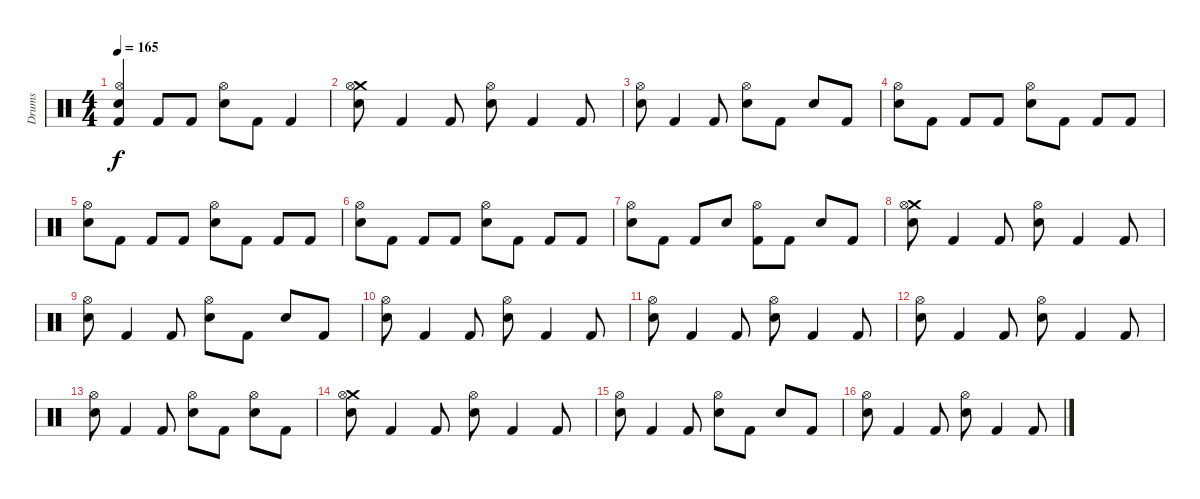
\track ("Drums" "Drums") {instrument percussion}
\staff {score}
\articulation defaults
\ts (4 4)
\tempo 165
\clef neutral
\ks c
("Electric Snare (hit)" "Hi-Hat (open)" "Kick (hit) 2").4{dy f} "Kick (hit) 2".8 "Kick (hit) 2".8 ("Electric Snare (hit)" "Hi-Hat (open)").8 "Kick (hit) 2".8 "Kick (hit) 2".4 |
("Crash medium (hit)" "Electric Snare (hit)" "Hi-Hat (open)").8 "Kick (hit) 2".4 "Kick (hit) 2".8 ("Electric Snare (hit)" "Hi-Hat (open)").8 "Kick (hit) 2".4 "Kick (hit) 2".8 |
("Electric Snare (hit)" "Hi-Hat (open)").8 "Kick (hit) 2".4 "Kick (hit) 2".8 ("Electric Snare (hit)" "Hi-Hat (open)").8 "Kick (hit) 2".8 "Electric Snare (hit)".8 "Kick (hit) 2".8 |
("Electric Snare (hit)" "Hi-Hat (open)").8 "Kick (hit) 2".8 "Kick (hit) 2".8 "Kick (hit) 2".8 ("Electric Snare (hit)" "Hi-Hat (open)").8 "Kick (hit) 2".8 "Kick (hit) 2".8 "Kick (hit) 2".8 |
("Electric Snare (hit)" "Hi-Hat (open)").8 "Kick (hit) 2".8 "Kick (hit) 2".8 "Kick (hit) 2".8 ("Electric Snare (hit)" "Hi-Hat (open)").8 "Kick (hit) 2".8 "Kick (hit) 2".8 "Kick (hit) 2".8 |
("Electric Snare (hit)" "Hi-Hat (open)").8 "Kick (hit) 2".8 "Kick (hit) 2".8 "Kick (hit) 2".8 ("Electric Snare (hit)" "Hi-Hat (open)").8 "Kick (hit) 2".8 "Kick (hit) 2".8 "Kick (hit) 2".8 |
("Electric Snare (hit)" "Hi-Hat (open)").8 "Kick (hit) 2".8 "Kick (hit) 2".8 "Electric Snare (hit)".8 ("Hi-Hat (open)" "Kick (hit) 2").8 "Kick (hit) 2".8 "Electric Snare (hit)".8 "Kick (hit) 2".8 |
("Crash medium (hit)" "Electric Snare (hit)" "Hi-Hat (open)").8 "Kick (hit) 2".4 "Kick (hit) 2".8 ("Electric Snare (hit)" "Hi-Hat (open)").8 "Kick (hit) 2".4 "Kick (hit) 2".8 |
("Electric Snare (hit)" "Hi-Hat (open)").8 "Kick (hit) 2".4 "Kick (hit) 2".8 ("Electric Snare (hit)" "Hi-Hat (open)").8 "Kick (hit) 2".8 "Electric Snare (hit)".8 "Kick (hit) 2".8 |
("Electric Snare (hit)" "Hi-Hat (open)").8 "Kick (hit) 2".4 "Kick (hit) 2".8 ("Electric Snare (hit)" "Hi-Hat (open)").8 "Kick (hit) 2".4 "Kick (hit) 2".8 |
("Electric Snare (hit)" "Hi-Hat (open)").8 "Kick (hit) 2".4 "Kick (hit) 2".8 ("Electric Snare (hit)" "Hi-Hat (open)").8 "Kick (hit) 2".4 "Kick (hit) 2".8 |
("Electric Snare (hit)" "Hi-Hat (open)").8 "Kick (hit) 2".4 "Kick (hit) 2".8 ("Electric Snare (hit)" "Hi-Hat (open)").8 "Kick (hit) 2".4 "Kick (hit) 2".8 |
("Electric Snare (hit)" "Hi-Hat (open)").8 "Kick (hit) 2".4 "Kick (hit) 2".8 ("Electric Snare (hit)" "Hi-Hat (open)").8 "Kick (hit) 2".8 ("Electric Snare (hit)" "Hi-Hat (open)").8 "Kick (hit) 2".8 |
("Crash medium (hit)" "Electric Snare (hit)" "Hi-Hat (open)").8{volume 8} "Kick (hit) 2".4 "Kick (hit) 2".8 ("Electric Snare (hit)" "Hi-Hat (open)").8 "Kick (hit) 2".4 "Kick (hit) 2".8 |
("Electric Snare (hit)" "Hi-Hat (open)").8 "Kick (hit) 2".4 "Kick (hit) 2".8 ("Electric Snare (hit)" "Hi-Hat (open)").8 "Kick (hit) 2".8 "Electric Snare (hit)".8 "Kick (hit) 2".8 |
("Electric Snare (hit)" "Hi-Hat (open)").8 "Kick (hit) 2".4 "Kick (hit) 2".8 ("Electric Snare (hit)" "Hi-Hat (open)").8 "Kick (hit) 2".4 "Kick (hit) 2".8
